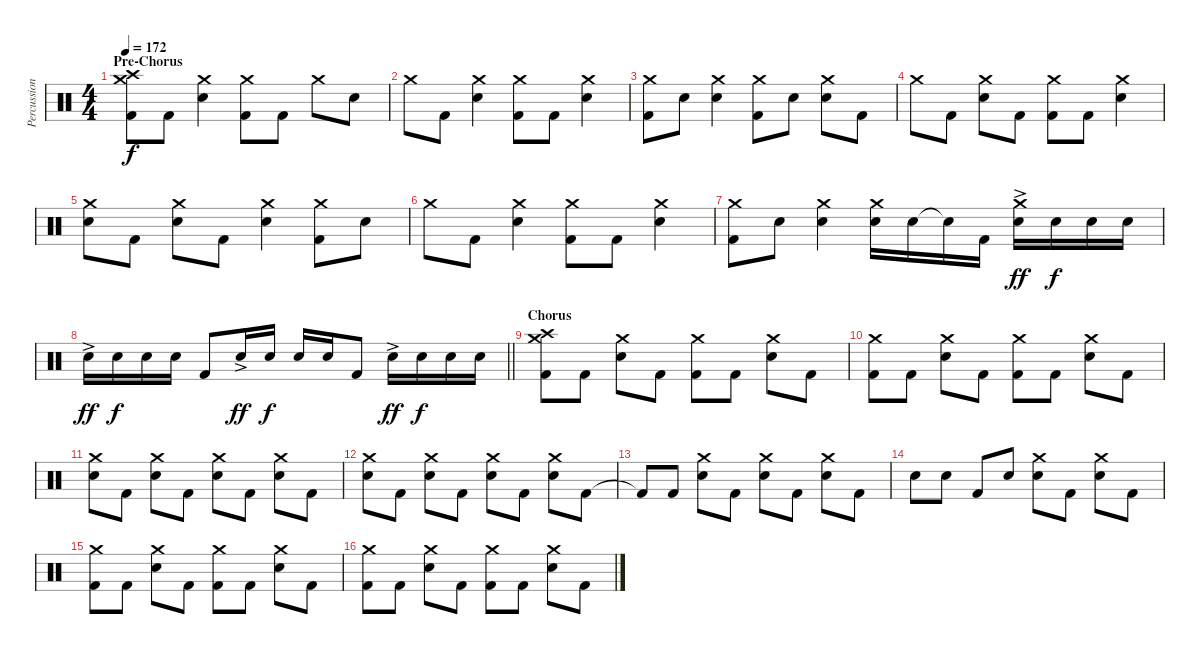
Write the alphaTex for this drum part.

\track ("Percussion" "Percussion") {instrument percussion}
\staff {score}
\articulation defaults
\ts (4 4)
\section ("" "Pre-Chorus")
\tempo 172
\clef neutral
\ks aminor
("Crash medium (hit)" "Crash high (hit)" "Kick (hit) 2").8{dy f} "Kick (hit) 2".8 ("Crash medium (hit)" "Electric Snare (hit)").4 ("Crash medium (hit)" "Kick (hit) 2").8 "Kick (hit) 2".8 "Crash medium (hit)".8 "Electric Snare (hit)".8 |
"Crash medium (hit)".8 "Kick (hit) 2".8 ("Crash medium (hit)" "Electric Snare (hit)").4 ("Crash medium (hit)" "Kick (hit) 2").8 "Kick (hit) 2".8 ("Crash medium (hit)" "Electric Snare (hit)").4 |
("Crash medium (hit)" "Kick (hit) 2").8 "Electric Snare (hit)".8 ("Crash medium (hit)" "Electric Snare (hit)").4 ("Crash medium (hit)" "Kick (hit) 2").8 "Electric Snare (hit)".8 ("Crash medium (hit)" "Electric Snare (hit)").8 "Kick (hit) 2".8 |
"Crash medium (hit)".8 "Kick (hit) 2".8 ("Crash medium (hit)" "Electric Snare (hit)").8 "Kick (hit) 2".8 ("Crash medium (hit)" "Kick (hit) 2").8 "Kick (hit) 2".8 ("Crash medium (hit)" "Electric Snare (hit)").4 |
("Crash medium (hit)" "Electric Snare (hit)").8 "Kick (hit) 2".8 ("Crash medium (hit)" "Electric Snare (hit)").8 "Kick (hit) 2".8 ("Crash medium (hit)" "Electric Snare (hit)").4 ("Crash medium (hit)" "Kick (hit) 2").8 "Electric Snare (hit)".8 |
"Crash medium (hit)".8 "Kick (hit) 2".8 ("Crash medium (hit)" "Electric Snare (hit)").4 ("Crash medium (hit)" "Kick (hit) 2").8 "Kick (hit) 2".8 ("Crash medium (hit)" "Electric Snare (hit)").4 |
("Crash medium (hit)" "Kick (hit) 2").8 "Electric Snare (hit)".8 ("Crash medium (hit)" "Electric Snare (hit)").4 ("Crash medium (hit)" "Electric Snare (hit)").16 "Electric Snare (hit)".16 "Electric Snare (hit)"{t}.16 "Kick (hit) 2".16 ("Crash medium (hit)" "Electric Snare (hit)"{ac}).16{dy ff} "Electric Snare (hit)".16{dy f} "Electric Snare (hit)".16 "Electric Snare (hit)".16 |
\barLineRight lightlight "Electric Snare (hit)"{ac}.16{dy ff} "Electric Snare (hit)".16{dy f} "Electric Snare (hit)".16 "Electric Snare (hit)".16 "Kick (hit) 2".8 "Electric Snare (hit)"{ac}.16{dy ff} "Electric Snare (hit)".16{dy f} "Electric Snare (hit)".16 "Electric Snare (hit)".16 "Kick (hit) 2".8 "Electric Snare (hit)"{ac}.16{dy ff} "Electric Snare (hit)".16{dy f} "Electric Snare (hit)".16 "Electric Snare (hit)".16
|
\section ("" "Chorus")
("Crash medium (hit)" "Crash high (hit)" "Kick (hit) 2").8 "Kick (hit) 2".8 ("Crash medium (hit)" "Electric Snare (hit)").8 "Kick (hit) 2".8 ("Crash medium (hit)" "Kick (hit) 2").8 "Kick (hit) 2".8 ("Crash medium (hit)" "Electric Snare (hit)").8 "Kick (hit) 2".8 |
("Crash medium (hit)" "Kick (hit) 2").8 "Kick (hit) 2".8 ("Crash medium (hit)" "Electric Snare (hit)").8 "Kick (hit) 2".8 ("Crash medium (hit)" "Kick (hit) 2").8 "Kick (hit) 2".8 ("Crash medium (hit)" "Electric Snare (hit)").8 "Kick (hit) 2".8 |
("Crash medium (hit)" "Electric Snare (hit)").8 "Kick (hit) 2".8 ("Crash medium (hit)" "Electric Snare (hit)").8 "Kick (hit) 2".8 ("Crash medium (hit)" "Electric Snare (hit)").8 "Kick (hit) 2".8 ("Crash medium (hit)" "Electric Snare (hit)").8 "Kick (hit) 2".8 |
("Crash medium (hit)" "Electric Snare (hit)").8 "Kick (hit) 2".8 ("Crash medium (hit)" "Electric Snare (hit)").8 "Kick (hit) 2".8 ("Crash medium (hit)" "Electric Snare (hit)").8 "Kick (hit) 2".8 ("Crash medium (hit)" "Electric Snare (hit)").8 "Kick (hit) 2".8 |
"Kick (hit) 2"{t}.8 "Kick (hit) 2".8 ("Crash medium (hit)" "Electric Snare (hit)").8 "Kick (hit) 2".8 ("Crash medium (hit)" "Electric Snare (hit)").8 "Kick (hit) 2".8 ("Crash medium (hit)" "Electric Snare (hit)").8 "Kick (hit) 2".8 |
"Electric Snare (hit)".8 "Electric Snare (hit)".8 "Kick (hit) 2".8 "Electric Snare (hit)".8 ("Crash medium (hit)" "Electric Snare (hit)").8 "Kick (hit) 2".8 ("Crash medium (hit)" "Electric Snare (hit)").8 "Kick (hit) 2".8 |
("Crash medium (hit)" "Kick (hit) 2").8 "Kick (hit) 2".8 ("Crash medium (hit)" "Electric Snare (hit)").8 "Kick (hit) 2".8 ("Crash medium (hit)" "Kick (hit) 2").8 "Kick (hit) 2".8 ("Crash medium (hit)" "Electric Snare (hit)").8 "Kick (hit) 2".8 |
("Crash medium (hit)" "Kick (hit) 2").8 "Kick (hit) 2".8 ("Crash medium (hit)" "Electric Snare (hit)").8 "Kick (hit) 2".8 ("Crash medium (hit)" "Kick (hit) 2").8 "Kick (hit) 2".8 ("Crash medium (hit)" "Electric Snare (hit)").8 "Kick (hit) 2".8
